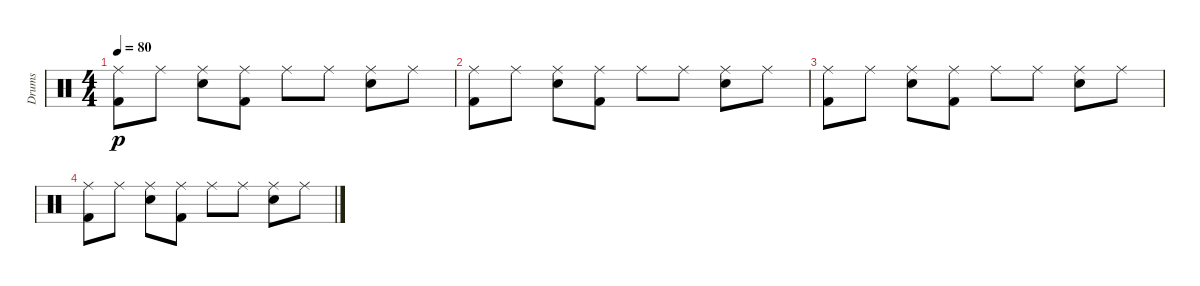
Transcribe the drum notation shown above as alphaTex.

\track ("Drums" "Drums") {instrument percussion}
\staff {score}
\articulation defaults
\ts (4 4)
\tempo 80
\clef neutral
\ks c
("Ride (middle)" "Kick (hit) 2").8{dy p} "Ride (middle)".8 ("Ride (middle)" "Electric Snare (hit)").8 ("Ride (middle)" "Kick (hit) 2").8 "Ride (middle)".8 "Ride (middle)".8 ("Ride (middle)" "Electric Snare (hit)").8 "Ride (middle)".8 |
("Ride (middle)" "Kick (hit) 2").8 "Ride (middle)".8 ("Ride (middle)" "Electric Snare (hit)").8 ("Ride (middle)" "Kick (hit) 2").8 "Ride (middle)".8 "Ride (middle)".8 ("Ride (middle)" "Electric Snare (hit)").8 "Ride (middle)".8 |
("Ride (middle)" "Kick (hit) 2").8 "Ride (middle)".8 ("Ride (middle)" "Electric Snare (hit)").8 ("Ride (middle)" "Kick (hit) 2").8 "Ride (middle)".8 "Ride (middle)".8 ("Ride (middle)" "Electric Snare (hit)").8 "Ride (middle)".8 |
("Ride (middle)" "Kick (hit) 2").8 "Ride (middle)".8 ("Ride (middle)" "Electric Snare (hit)").8 ("Ride (middle)" "Kick (hit) 2").8 "Ride (middle)".8 "Ride (middle)".8 ("Ride (middle)" "Electric Snare (hit)").8 "Ride (middle)".8
